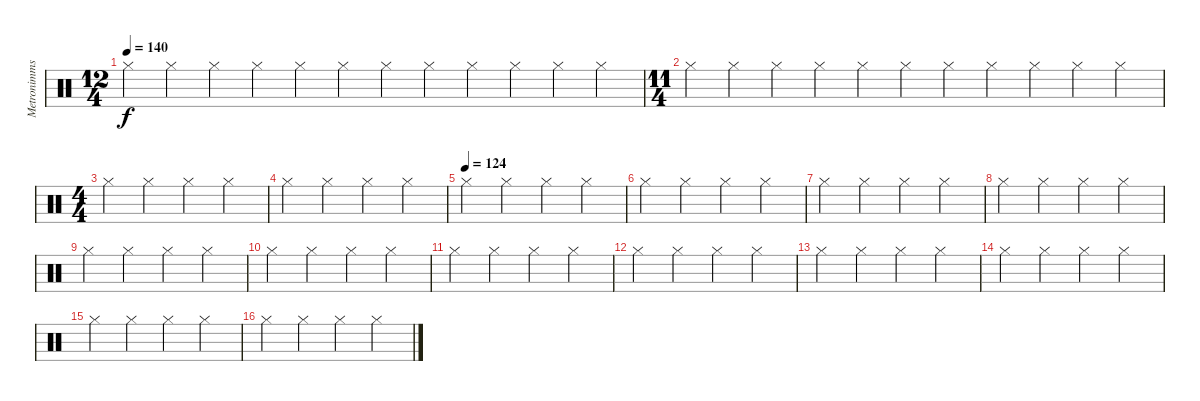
\track ("Metronimms" "Metronimms") {instrument percussion}
\staff {score}
\articulation defaults
\ts (12 4)
\tempo 140
\clef neutral
\ks c "Hi-Hat (closed)".4{dy f} "Hi-Hat (closed)".4 "Hi-Hat (closed)".4 "Hi-Hat (closed)".4 "Hi-Hat (closed)".4 "Hi-Hat (closed)".4 "Hi-Hat (closed)".4 "Hi-Hat (closed)".4 "Hi-Hat (closed)".4 "Hi-Hat (closed)".4 "Hi-Hat (closed)".4 "Hi-Hat (closed)".4
|
\ts (11 4)
"Hi-Hat (closed)".4 "Hi-Hat (closed)".4 "Hi-Hat (closed)".4 "Hi-Hat (closed)".4 "Hi-Hat (closed)".4 "Hi-Hat (closed)".4 "Hi-Hat (closed)".4 "Hi-Hat (closed)".4 "Hi-Hat (closed)".4 "Hi-Hat (closed)".4 "Hi-Hat (closed)".4 |
\ts (4 4)
"Hi-Hat (closed)".4 "Hi-Hat (closed)".4 "Hi-Hat (closed)".4 "Hi-Hat (closed)".4 |
"Hi-Hat (closed)".4 "Hi-Hat (closed)".4 "Hi-Hat (closed)".4 "Hi-Hat (closed)".4 |
\tempo (124)
"Hi-Hat (closed)".4 "Hi-Hat (closed)".4 "Hi-Hat (closed)".4 "Hi-Hat (closed)".4 |
"Hi-Hat (closed)".4 "Hi-Hat (closed)".4 "Hi-Hat (closed)".4 "Hi-Hat (closed)".4 |
"Hi-Hat (closed)".4 "Hi-Hat (closed)".4 "Hi-Hat (closed)".4 "Hi-Hat (closed)".4 |
"Hi-Hat (closed)".4 "Hi-Hat (closed)".4 "Hi-Hat (closed)".4 "Hi-Hat (closed)".4 |
"Hi-Hat (closed)".4 "Hi-Hat (closed)".4 "Hi-Hat (closed)".4 "Hi-Hat (closed)".4 |
"Hi-Hat (closed)".4 "Hi-Hat (closed)".4 "Hi-Hat (closed)".4 "Hi-Hat (closed)".4 |
"Hi-Hat (closed)".4 "Hi-Hat (closed)".4 "Hi-Hat (closed)".4 "Hi-Hat (closed)".4 |
"Hi-Hat (closed)".4 "Hi-Hat (closed)".4 "Hi-Hat (closed)".4 "Hi-Hat (closed)".4 |
"Hi-Hat (closed)".4 "Hi-Hat (closed)".4 "Hi-Hat (closed)".4 "Hi-Hat (closed)".4 |
"Hi-Hat (closed)".4 "Hi-Hat (closed)".4 "Hi-Hat (closed)".4 "Hi-Hat (closed)".4 |
"Hi-Hat (closed)".4 "Hi-Hat (closed)".4 "Hi-Hat (closed)".4 "Hi-Hat (closed)".4 |
"Hi-Hat (closed)".4 "Hi-Hat (closed)".4 "Hi-Hat (closed)".4 "Hi-Hat (closed)".4
